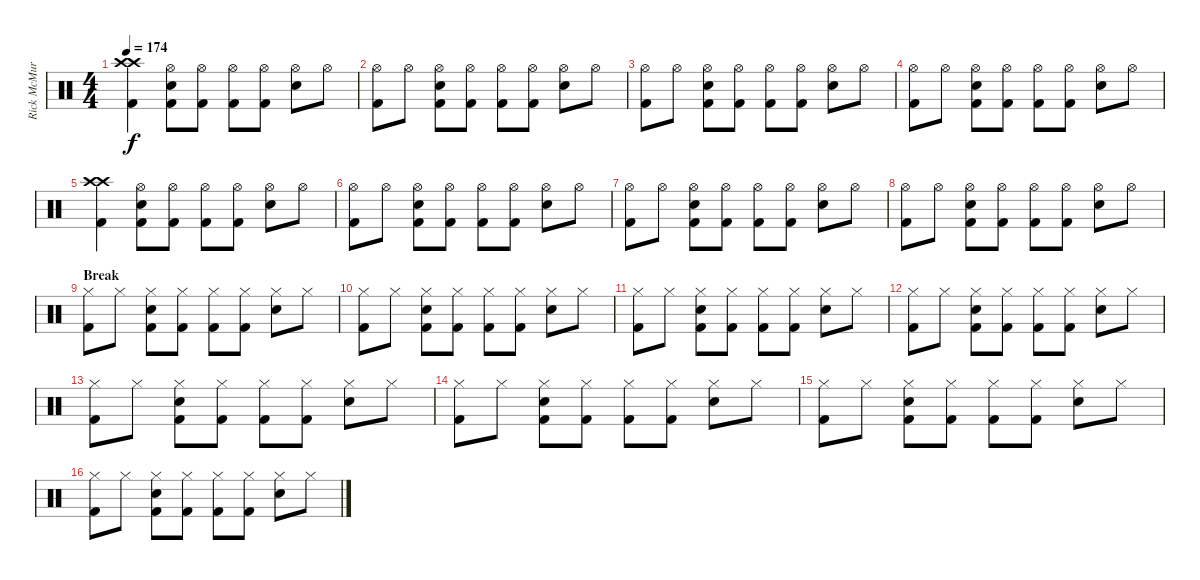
\track ("Rick McMurray" "Rick McMur") {instrument percussion}
\staff {score}
\articulation defaults
\ts (4 4)
\tempo 174
\clef neutral
\ks c
("Crash high (hit)" "Crash high (hit)" "Kick (hit) 2").4{dy f} ("Hi-Hat (open)" "Snare (hit) 2" "Kick (hit) 2").8 ("Hi-Hat (open)" "Kick (hit) 2").8 ("Hi-Hat (open)" "Kick (hit) 2").8 ("Hi-Hat (open)" "Kick (hit) 2").8 ("Hi-Hat (open)" "Snare (hit) 2").8 "Hi-Hat (open)".8 |
("Hi-Hat (open)" "Kick (hit) 2").8 "Hi-Hat (open)".8 ("Hi-Hat (open)" "Snare (hit) 2" "Kick (hit) 2").8 ("Hi-Hat (open)" "Kick (hit) 2").8 ("Hi-Hat (open)" "Kick (hit) 2").8 ("Hi-Hat (open)" "Kick (hit) 2").8 ("Hi-Hat (open)" "Snare (hit) 2").8 "Hi-Hat (open)".8 |
("Hi-Hat (open)" "Kick (hit) 2").8 "Hi-Hat (open)".8 ("Hi-Hat (open)" "Snare (hit) 2" "Kick (hit) 2").8 ("Hi-Hat (open)" "Kick (hit) 2").8 ("Hi-Hat (open)" "Kick (hit) 2").8 ("Hi-Hat (open)" "Kick (hit) 2").8 ("Hi-Hat (open)" "Snare (hit) 2").8 "Hi-Hat (open)".8 |
("Hi-Hat (open)" "Kick (hit) 2").8 "Hi-Hat (open)".8 ("Hi-Hat (open)" "Snare (hit) 2" "Kick (hit) 2").8 ("Hi-Hat (open)" "Kick (hit) 2").8 ("Hi-Hat (open)" "Kick (hit) 2").8 ("Hi-Hat (open)" "Kick (hit) 2").8 ("Hi-Hat (open)" "Snare (hit) 2").8 "Hi-Hat (open)".8 |
("Crash high (hit)" "Crash high (hit)" "Kick (hit) 2").4 ("Hi-Hat (open)" "Snare (hit) 2" "Kick (hit) 2").8 ("Hi-Hat (open)" "Kick (hit) 2").8 ("Hi-Hat (open)" "Kick (hit) 2").8 ("Hi-Hat (open)" "Kick (hit) 2").8 ("Hi-Hat (open)" "Snare (hit) 2").8 "Hi-Hat (open)".8 |
("Hi-Hat (open)" "Kick (hit) 2").8 "Hi-Hat (open)".8 ("Hi-Hat (open)" "Snare (hit) 2" "Kick (hit) 2").8 ("Hi-Hat (open)" "Kick (hit) 2").8 ("Hi-Hat (open)" "Kick (hit) 2").8 ("Hi-Hat (open)" "Kick (hit) 2").8 ("Hi-Hat (open)" "Snare (hit) 2").8 "Hi-Hat (open)".8 |
("Hi-Hat (open)" "Kick (hit) 2").8 "Hi-Hat (open)".8 ("Hi-Hat (open)" "Snare (hit) 2" "Kick (hit) 2").8 ("Hi-Hat (open)" "Kick (hit) 2").8 ("Hi-Hat (open)" "Kick (hit) 2").8 ("Hi-Hat (open)" "Kick (hit) 2").8 ("Hi-Hat (open)" "Snare (hit) 2").8 "Hi-Hat (open)".8 |
("Hi-Hat (open)" "Kick (hit) 2").8 "Hi-Hat (open)".8 ("Hi-Hat (open)" "Snare (hit) 2" "Kick (hit) 2").8 ("Hi-Hat (open)" "Kick (hit) 2").8 ("Hi-Hat (open)" "Kick (hit) 2").8 ("Hi-Hat (open)" "Kick (hit) 2").8 ("Hi-Hat (open)" "Snare (hit) 2").8 "Hi-Hat (open)".8 |
\section ("" "Break")
("Hi-Hat (closed)" "Kick (hit) 2").8 "Hi-Hat (closed)".8 ("Hi-Hat (closed)" "Snare (hit) 2" "Kick (hit) 2").8 ("Hi-Hat (closed)" "Kick (hit) 2").8 ("Hi-Hat (closed)" "Kick (hit) 2").8 ("Hi-Hat (closed)" "Kick (hit) 2").8 ("Hi-Hat (closed)" "Snare (hit) 2").8 "Hi-Hat (closed)".8 |
("Hi-Hat (closed)" "Kick (hit) 2").8 "Hi-Hat (closed)".8 ("Hi-Hat (closed)" "Snare (hit) 2" "Kick (hit) 2").8 ("Hi-Hat (closed)" "Kick (hit) 2").8 ("Hi-Hat (closed)" "Kick (hit) 2").8 ("Hi-Hat (closed)" "Kick (hit) 2").8 ("Hi-Hat (closed)" "Snare (hit) 2").8 "Hi-Hat (closed)".8 |
("Hi-Hat (closed)" "Kick (hit) 2").8 "Hi-Hat (closed)".8 ("Hi-Hat (closed)" "Snare (hit) 2" "Kick (hit) 2").8 ("Hi-Hat (closed)" "Kick (hit) 2").8 ("Hi-Hat (closed)" "Kick (hit) 2").8 ("Hi-Hat (closed)" "Kick (hit) 2").8 ("Hi-Hat (closed)" "Snare (hit) 2").8 "Hi-Hat (closed)".8 |
("Hi-Hat (closed)" "Kick (hit) 2").8 "Hi-Hat (closed)".8 ("Hi-Hat (closed)" "Snare (hit) 2" "Kick (hit) 2").8 ("Hi-Hat (closed)" "Kick (hit) 2").8 ("Hi-Hat (closed)" "Kick (hit) 2").8 ("Hi-Hat (closed)" "Kick (hit) 2").8 ("Hi-Hat (closed)" "Snare (hit) 2").8 "Hi-Hat (closed)".8 |
("Hi-Hat (closed)" "Kick (hit) 2").8 "Hi-Hat (closed)".8 ("Hi-Hat (closed)" "Snare (hit) 2" "Kick (hit) 2").8 ("Hi-Hat (closed)" "Kick (hit) 2").8 ("Hi-Hat (closed)" "Kick (hit) 2").8 ("Hi-Hat (closed)" "Kick (hit) 2").8 ("Hi-Hat (closed)" "Snare (hit) 2").8 "Hi-Hat (closed)".8 |
("Hi-Hat (closed)" "Kick (hit) 2").8 "Hi-Hat (closed)".8 ("Hi-Hat (closed)" "Snare (hit) 2" "Kick (hit) 2").8 ("Hi-Hat (closed)" "Kick (hit) 2").8 ("Hi-Hat (closed)" "Kick (hit) 2").8 ("Hi-Hat (closed)" "Kick (hit) 2").8 ("Hi-Hat (closed)" "Snare (hit) 2").8 "Hi-Hat (closed)".8 |
("Hi-Hat (closed)" "Kick (hit) 2").8 "Hi-Hat (closed)".8 ("Hi-Hat (closed)" "Snare (hit) 2" "Kick (hit) 2").8 ("Hi-Hat (closed)" "Kick (hit) 2").8 ("Hi-Hat (closed)" "Kick (hit) 2").8 ("Hi-Hat (closed)" "Kick (hit) 2").8 ("Hi-Hat (closed)" "Snare (hit) 2").8 "Hi-Hat (closed)".8 |
("Hi-Hat (closed)" "Kick (hit) 2").8 "Hi-Hat (closed)".8 ("Hi-Hat (closed)" "Snare (hit) 2" "Kick (hit) 2").8 ("Hi-Hat (closed)" "Kick (hit) 2").8 ("Hi-Hat (closed)" "Kick (hit) 2").8 ("Hi-Hat (closed)" "Kick (hit) 2").8 ("Hi-Hat (closed)" "Snare (hit) 2").8 "Hi-Hat (closed)".8
